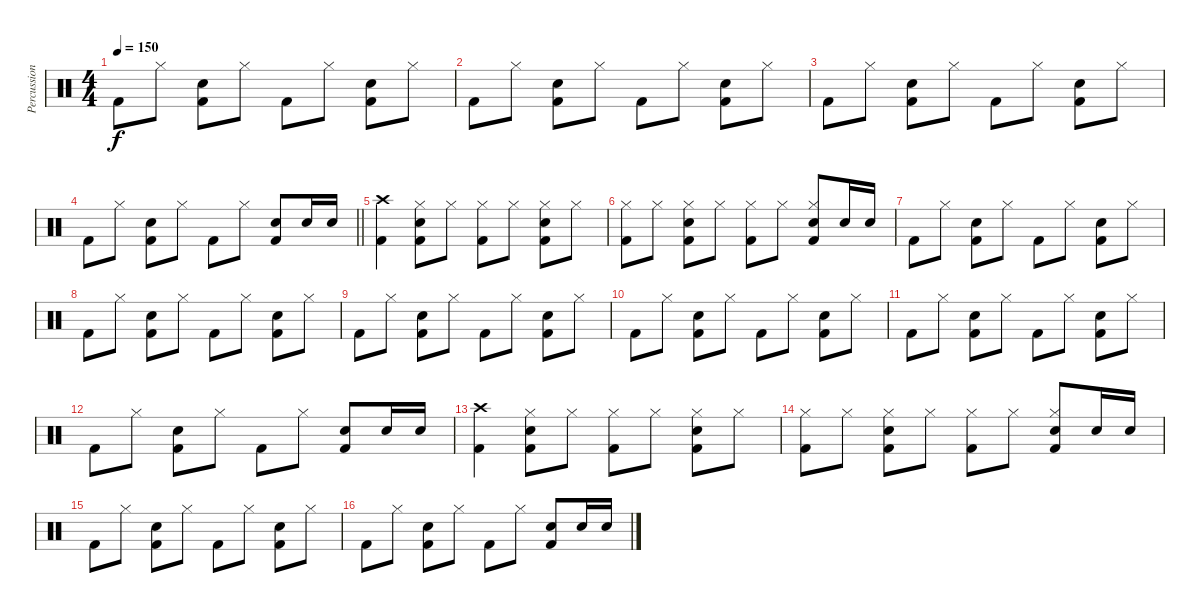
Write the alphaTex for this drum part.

\track ("Percussion" "Percussion") {instrument percussion}
\staff {score}
\articulation defaults
\ts (4 4)
\tempo 150
\clef neutral
\ks c "Kick (hit) 2".8{dy f} "Hi-Hat (closed)".8
("Electric Snare (hit)" "Kick (hit) 2").8 "Hi-Hat (closed)".8 "Kick (hit) 2".8 "Hi-Hat (closed)".8 ("Electric Snare (hit)" "Kick (hit) 2").8 "Hi-Hat (closed)".8 |
"Kick (hit) 2".8 "Hi-Hat (closed)".8 ("Electric Snare (hit)" "Kick (hit) 2").8 "Hi-Hat (closed)".8 "Kick (hit) 2".8 "Hi-Hat (closed)".8 ("Electric Snare (hit)" "Kick (hit) 2").8 "Hi-Hat (closed)".8 |
"Kick (hit) 2".8 "Hi-Hat (closed)".8 ("Electric Snare (hit)" "Kick (hit) 2").8 "Hi-Hat (closed)".8 "Kick (hit) 2".8 "Hi-Hat (closed)".8 ("Electric Snare (hit)" "Kick (hit) 2").8 "Hi-Hat (closed)".8 |
\barLineRight lightlight "Kick (hit) 2".8 "Hi-Hat (closed)".8
("Electric Snare (hit)" "Kick (hit) 2").8 "Hi-Hat (closed)".8 "Kick (hit) 2".8 "Hi-Hat (closed)".8 ("Electric Snare (hit)" "Kick (hit) 2").8 "Electric Snare (hit)".16 "Electric Snare (hit)".16 |
("Crash high (hit)" "Kick (hit) 2").4 ("Hi-Hat (closed)" "Electric Snare (hit)" "Kick (hit) 2").8 "Hi-Hat (closed)".8 ("Hi-Hat (closed)" "Kick (hit) 2").8 "Hi-Hat (closed)".8 ("Hi-Hat (closed)" "Electric Snare (hit)" "Kick (hit) 2").8 "Hi-Hat (closed)".8 |
("Hi-Hat (closed)" "Kick (hit) 2").8 "Hi-Hat (closed)".8 ("Hi-Hat (closed)" "Electric Snare (hit)" "Kick (hit) 2").8 "Hi-Hat (closed)".8 ("Hi-Hat (closed)" "Kick (hit) 2").8 "Hi-Hat (closed)".8 ("Hi-Hat (closed)" "Electric Snare (hit)" "Kick (hit) 2").8 "Electric Snare (hit)".16 "Electric Snare (hit)".16 |
"Kick (hit) 2".8 "Hi-Hat (closed)".8 ("Electric Snare (hit)" "Kick (hit) 2").8 "Hi-Hat (closed)".8 "Kick (hit) 2".8 "Hi-Hat (closed)".8 ("Electric Snare (hit)" "Kick (hit) 2").8 "Hi-Hat (closed)".8 |
"Kick (hit) 2".8 "Hi-Hat (closed)".8 ("Electric Snare (hit)" "Kick (hit) 2").8 "Hi-Hat (closed)".8 "Kick (hit) 2".8 "Hi-Hat (closed)".8 ("Electric Snare (hit)" "Kick (hit) 2").8 "Hi-Hat (closed)".8 |
"Kick (hit) 2".8 "Hi-Hat (closed)".8 ("Electric Snare (hit)" "Kick (hit) 2").8 "Hi-Hat (closed)".8 "Kick (hit) 2".8 "Hi-Hat (closed)".8 ("Electric Snare (hit)" "Kick (hit) 2").8 "Hi-Hat (closed)".8 |
"Kick (hit) 2".8 "Hi-Hat (closed)".8 ("Electric Snare (hit)" "Kick (hit) 2").8 "Hi-Hat (closed)".8 "Kick (hit) 2".8 "Hi-Hat (closed)".8 ("Electric Snare (hit)" "Kick (hit) 2").8 "Hi-Hat (closed)".8 |
"Kick (hit) 2".8 "Hi-Hat (closed)".8 ("Electric Snare (hit)" "Kick (hit) 2").8 "Hi-Hat (closed)".8 "Kick (hit) 2".8 "Hi-Hat (closed)".8 ("Electric Snare (hit)" "Kick (hit) 2").8 "Hi-Hat (closed)".8 |
"Kick (hit) 2".8 "Hi-Hat (closed)".8 ("Electric Snare (hit)" "Kick (hit) 2").8 "Hi-Hat (closed)".8 "Kick (hit) 2".8 "Hi-Hat (closed)".8 ("Electric Snare (hit)" "Kick (hit) 2").8 "Electric Snare (hit)".16 "Electric Snare (hit)".16 |
("Crash high (hit)" "Kick (hit) 2").4 ("Hi-Hat (closed)" "Electric Snare (hit)" "Kick (hit) 2").8 "Hi-Hat (closed)".8 ("Hi-Hat (closed)" "Kick (hit) 2").8 "Hi-Hat (closed)".8 ("Hi-Hat (closed)" "Electric Snare (hit)" "Kick (hit) 2").8 "Hi-Hat (closed)".8 |
("Hi-Hat (closed)" "Kick (hit) 2").8 "Hi-Hat (closed)".8 ("Hi-Hat (closed)" "Electric Snare (hit)" "Kick (hit) 2").8 "Hi-Hat (closed)".8 ("Hi-Hat (closed)" "Kick (hit) 2").8 "Hi-Hat (closed)".8 ("Hi-Hat (closed)" "Electric Snare (hit)" "Kick (hit) 2").8 "Electric Snare (hit)".16 "Electric Snare (hit)".16 |
"Kick (hit) 2".8 "Hi-Hat (closed)".8 ("Electric Snare (hit)" "Kick (hit) 2").8 "Hi-Hat (closed)".8 "Kick (hit) 2".8 "Hi-Hat (closed)".8 ("Electric Snare (hit)" "Kick (hit) 2").8 "Hi-Hat (closed)".8 |
"Kick (hit) 2".8 "Hi-Hat (closed)".8 ("Electric Snare (hit)" "Kick (hit) 2").8 "Hi-Hat (closed)".8 "Kick (hit) 2".8 "Hi-Hat (closed)".8 ("Electric Snare (hit)" "Kick (hit) 2").8 "Electric Snare (hit)".16 "Electric Snare (hit)".16
